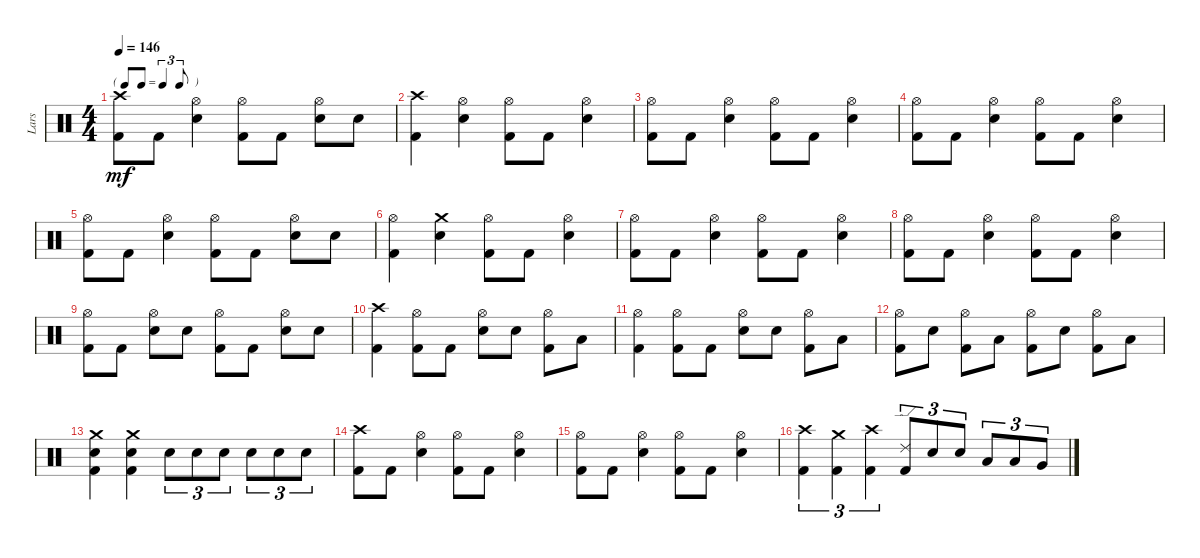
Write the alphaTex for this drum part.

\track ("Lars" "Lars") {instrument percussion}
\staff {score}
\articulation defaults
\ts (4 4)
\tf triplet8th
\tempo 146
\clef neutral
\ks c
("Crash high (hit)" "Kick (hit) 2").8{dy mf} "Kick (hit) 2".8 ("Hi-Hat (open)" "Electric Snare (hit)").4 ("Hi-Hat (open)" "Kick (hit) 2").8 "Kick (hit) 2".8 ("Hi-Hat (open)" "Electric Snare (hit)").8 "Electric Snare (hit)".8 |
("Crash high (hit)" "Kick (hit) 2").4 ("Hi-Hat (open)" "Electric Snare (hit)").4 ("Hi-Hat (open)" "Kick (hit) 2").8 "Kick (hit) 2".8 ("Hi-Hat (open)" "Electric Snare (hit)").4 |
("Hi-Hat (open)" "Kick (hit) 2").8 "Kick (hit) 2".8 ("Hi-Hat (open)" "Electric Snare (hit)").4 ("Hi-Hat (open)" "Kick (hit) 2").8 "Kick (hit) 2".8 ("Hi-Hat (open)" "Electric Snare (hit)").4 |
("Hi-Hat (open)" "Kick (hit) 2").8 "Kick (hit) 2".8 ("Hi-Hat (open)" "Electric Snare (hit)").4 ("Hi-Hat (open)" "Kick (hit) 2").8 "Kick (hit) 2".8 ("Hi-Hat (open)" "Electric Snare (hit)").4 |
("Hi-Hat (open)" "Kick (hit) 2").8 "Kick (hit) 2".8 ("Hi-Hat (open)" "Electric Snare (hit)").4 ("Hi-Hat (open)" "Kick (hit) 2").8 "Kick (hit) 2".8 ("Hi-Hat (open)" "Electric Snare (hit)").8 "Electric Snare (hit)".8 |
("Hi-Hat (open)" "Kick (hit) 2").4 ("Crash medium (hit)" "Electric Snare (hit)").4 ("Hi-Hat (open)" "Kick (hit) 2").8 "Kick (hit) 2".8 ("Hi-Hat (open)" "Electric Snare (hit)").4 |
("Hi-Hat (open)" "Kick (hit) 2").8 "Kick (hit) 2".8 ("Hi-Hat (open)" "Electric Snare (hit)").4 ("Hi-Hat (open)" "Kick (hit) 2").8 "Kick (hit) 2".8 ("Hi-Hat (open)" "Electric Snare (hit)").4 |
("Hi-Hat (open)" "Kick (hit) 2").8 "Kick (hit) 2".8 ("Hi-Hat (open)" "Electric Snare (hit)").4 ("Hi-Hat (open)" "Kick (hit) 2").8 "Kick (hit) 2".8 ("Hi-Hat (open)" "Electric Snare (hit)").4 |
("Hi-Hat (open)" "Kick (hit) 2").8 "Kick (hit) 2".8 ("Hi-Hat (open)" "Electric Snare (hit)").8 "Electric Snare (hit)".8 ("Hi-Hat (open)" "Kick (hit) 2").8 "Kick (hit) 2".8 ("Hi-Hat (open)" "Electric Snare (hit)").8 "Electric Snare (hit)".8 |
("Crash high (hit)" "Kick (hit) 2").4 ("Hi-Hat (open)" "Kick (hit) 2").8 "Kick (hit) 2".8 ("Hi-Hat (open)" "Electric Snare (hit)").8 "Electric Snare (hit)".8 ("Hi-Hat (open)" "Kick (hit) 2").8 "Low Tom (hit)".8 |
("Hi-Hat (open)" "Kick (hit) 2").4 ("Hi-Hat (open)" "Kick (hit) 2").8 "Kick (hit) 2".8 ("Hi-Hat (open)" "Electric Snare (hit)").8 "Electric Snare (hit)".8 ("Hi-Hat (open)" "Kick (hit) 2").8 "Low Tom (hit)".8 |
("Hi-Hat (open)" "Kick (hit) 2").8 "Electric Snare (hit)".8 ("Hi-Hat (open)" "Kick (hit) 2").8 "Low Tom (hit)".8 ("Hi-Hat (open)" "Kick (hit) 2").8 "Electric Snare (hit)".8 ("Hi-Hat (open)" "Kick (hit) 2").8 "Low Tom (hit)".8 |
("Crash medium (hit)" "Electric Snare (hit)" "Kick (hit) 2").4 ("Crash medium (hit)" "Electric Snare (hit)" "Kick (hit) 2").4 "Electric Snare (hit)".8{tu (3 2)} "Electric Snare (hit)".8{tu (3 2)} "Electric Snare (hit)".8{tu (3 2)} "Electric Snare (hit)".8{tu (3 2)} "Electric Snare (hit)".8{tu (3 2)} "Electric Snare (hit)".8{tu (3 2)} |
("Crash high (hit)" "Kick (hit) 2").8 "Kick (hit) 2".8 ("Hi-Hat (open)" "Electric Snare (hit)").4 ("Hi-Hat (open)" "Kick (hit) 2").8 "Kick (hit) 2".8 ("Hi-Hat (open)" "Electric Snare (hit)").4 |
("Hi-Hat (open)" "Kick (hit) 2").8 "Kick (hit) 2".8 ("Hi-Hat (open)" "Electric Snare (hit)").4 ("Hi-Hat (open)" "Kick (hit) 2").8 "Kick (hit) 2".8 ("Hi-Hat (open)" "Electric Snare (hit)").4 |
("Crash high (hit)" "Kick (hit) 2").4{tu (3 2)} ("Crash medium (hit)" "Kick (hit) 2").4{tu (3 2)} ("Crash high (hit)" "Kick (hit) 2").4{tu (3 2)} ("Ride (edge) 2" "Kick (hit) 2").8{tu (3 2)} "Electric Snare (hit)".8{tu (3 2)} "Electric Snare (hit)".8{tu (3 2)} "Low Tom (hit)".8{tu (3 2)} "Low Tom (hit)".8{tu (3 2)} "Very Low Tom (hit)".8{tu (3 2)}
